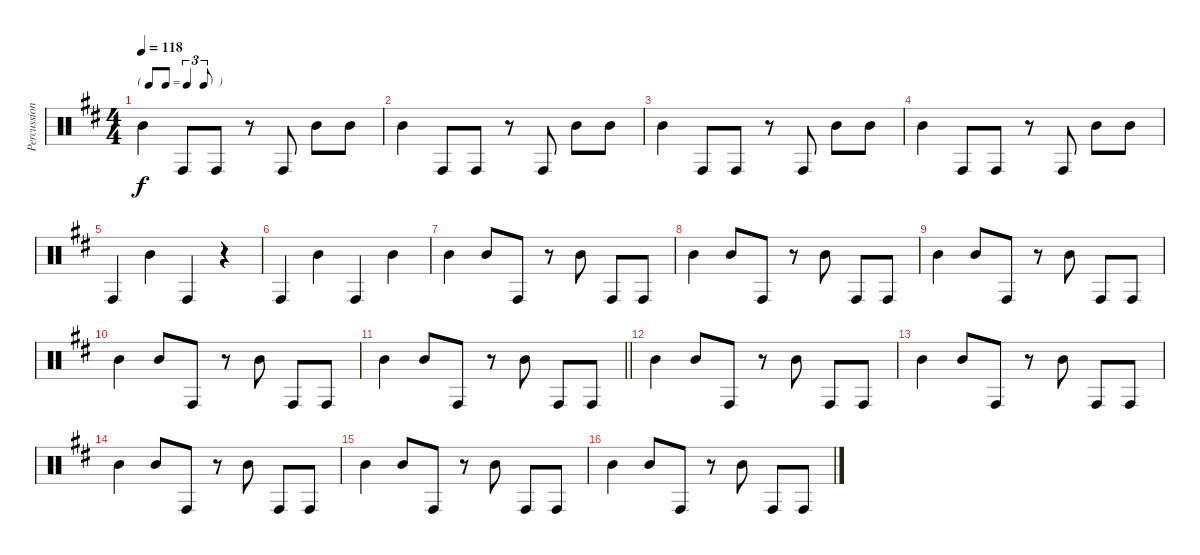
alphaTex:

\track ("Percussion" "Percussion") {instrument percussion}
\staff {score}
\articulation defaults
\ts (4 4)
\tf triplet8th
\tempo 118
\clef neutral
\ks d "Mid Tom (hit)".4{dy f} "Conga high (hit)".8 "Conga high (hit)".8
r.8 "Conga high (hit)".8 "Mid Tom (hit)".8 "Mid Tom (hit)".8 |
"Mid Tom (hit)".4 "Conga high (hit)".8 "Conga high (hit)".8 r.8 "Conga high (hit)".8 "Mid Tom (hit)".8 "Mid Tom (hit)".8 |
"Mid Tom (hit)".4 "Conga high (hit)".8 "Conga high (hit)".8 r.8 "Conga high (hit)".8 "Mid Tom (hit)".8 "Mid Tom (hit)".8 |
"Mid Tom (hit)".4 "Conga high (hit)".8 "Conga high (hit)".8 r.8 "Conga high (hit)".8 "Mid Tom (hit)".8 "Mid Tom (hit)".8 |
"Conga high (hit)".4 "Mid Tom (hit)".4 "Conga high (hit)".4 r.4 |
"Conga high (hit)".4 "Mid Tom (hit)".4 "Conga high (hit)".4 "Mid Tom (hit)".4 |
"Mid Tom (hit)".4 "Mid Tom (hit)".8 "Conga high (hit)".8 r.8 "Mid Tom (hit)".8 "Conga high (hit)".8 "Conga high (hit)".8 |
"Mid Tom (hit)".4 "Mid Tom (hit)".8 "Conga high (hit)".8 r.8 "Mid Tom (hit)".8 "Conga high (hit)".8 "Conga high (hit)".8 |
"Mid Tom (hit)".4 "Mid Tom (hit)".8 "Conga high (hit)".8 r.8 "Mid Tom (hit)".8 "Conga high (hit)".8 "Conga high (hit)".8 |
"Mid Tom (hit)".4 "Mid Tom (hit)".8 "Conga high (hit)".8 r.8 "Mid Tom (hit)".8 "Conga high (hit)".8 "Conga high (hit)".8 |
\barLineRight lightlight "Mid Tom (hit)".4 "Mid Tom (hit)".8 "Conga high (hit)".8
r.8 "Mid Tom (hit)".8 "Conga high (hit)".8 "Conga high (hit)".8 |
"Mid Tom (hit)".4 "Mid Tom (hit)".8 "Conga high (hit)".8 r.8 "Mid Tom (hit)".8 "Conga high (hit)".8 "Conga high (hit)".8 |
"Mid Tom (hit)".4 "Mid Tom (hit)".8 "Conga high (hit)".8 r.8 "Mid Tom (hit)".8 "Conga high (hit)".8 "Conga high (hit)".8 |
"Mid Tom (hit)".4 "Mid Tom (hit)".8 "Conga high (hit)".8 r.8 "Mid Tom (hit)".8 "Conga high (hit)".8 "Conga high (hit)".8 |
"Mid Tom (hit)".4 "Mid Tom (hit)".8 "Conga high (hit)".8 r.8 "Mid Tom (hit)".8 "Conga high (hit)".8 "Conga high (hit)".8 |
"Mid Tom (hit)".4 "Mid Tom (hit)".8 "Conga high (hit)".8 r.8 "Mid Tom (hit)".8 "Conga high (hit)".8 "Conga high (hit)".8
